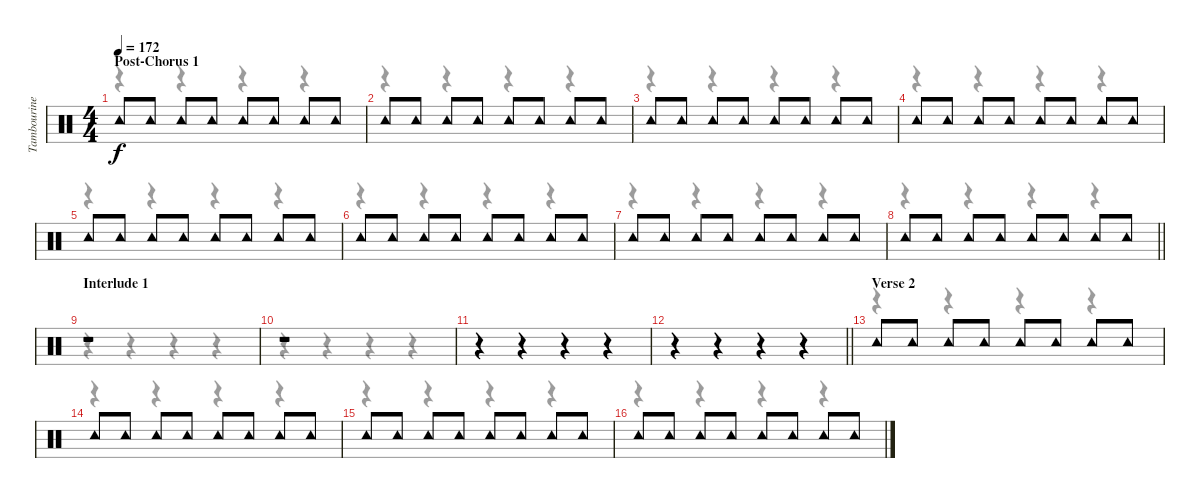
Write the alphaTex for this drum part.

\track ("Tambourine" "Tambourine") {instrument percussion}
\staff {score}
\articulation defaults
\voice
\ts (4 4)
\section ("" "Post-Chorus 1")
\tempo 172
\clef neutral
\ks c "Tambourine (hit)".8{dy f} "Tambourine (hit)".8 "Tambourine (hit)".8 "Tambourine (hit)".8 "Tambourine (hit)".8 "Tambourine (hit)".8 "Tambourine (hit)".8 "Tambourine (hit)".8
|
"Tambourine (hit)".8 "Tambourine (hit)".8 "Tambourine (hit)".8 "Tambourine (hit)".8 "Tambourine (hit)".8 "Tambourine (hit)".8 "Tambourine (hit)".8 "Tambourine (hit)".8 |
"Tambourine (hit)".8 "Tambourine (hit)".8 "Tambourine (hit)".8 "Tambourine (hit)".8 "Tambourine (hit)".8 "Tambourine (hit)".8 "Tambourine (hit)".8 "Tambourine (hit)".8 |
"Tambourine (hit)".8 "Tambourine (hit)".8 "Tambourine (hit)".8 "Tambourine (hit)".8 "Tambourine (hit)".8 "Tambourine (hit)".8 "Tambourine (hit)".8 "Tambourine (hit)".8 |
"Tambourine (hit)".8 "Tambourine (hit)".8 "Tambourine (hit)".8 "Tambourine (hit)".8 "Tambourine (hit)".8 "Tambourine (hit)".8 "Tambourine (hit)".8 "Tambourine (hit)".8 |
"Tambourine (hit)".8 "Tambourine (hit)".8 "Tambourine (hit)".8 "Tambourine (hit)".8 "Tambourine (hit)".8 "Tambourine (hit)".8 "Tambourine (hit)".8 "Tambourine (hit)".8 |
"Tambourine (hit)".8 "Tambourine (hit)".8 "Tambourine (hit)".8 "Tambourine (hit)".8 "Tambourine (hit)".8 "Tambourine (hit)".8 "Tambourine (hit)".8 "Tambourine (hit)".8 |
\barLineRight lightlight "Tambourine (hit)".8 "Tambourine (hit)".8 "Tambourine (hit)".8 "Tambourine (hit)".8 "Tambourine (hit)".8 "Tambourine (hit)".8 "Tambourine (hit)".8 "Tambourine (hit)".8
|
\section ("" "Interlude 1")
r.1 |
r.1 |
r.4 r.4 r.4 r.4 |
\barLineRight lightlight
r.4 r.4 r.4 r.4 |
\section ("" "Verse 2")
"Tambourine (hit)".8 "Tambourine (hit)".8 "Tambourine (hit)".8 "Tambourine (hit)".8 "Tambourine (hit)".8 "Tambourine (hit)".8 "Tambourine (hit)".8 "Tambourine (hit)".8 |
"Tambourine (hit)".8 "Tambourine (hit)".8 "Tambourine (hit)".8 "Tambourine (hit)".8 "Tambourine (hit)".8 "Tambourine (hit)".8 "Tambourine (hit)".8 "Tambourine (hit)".8 |
"Tambourine (hit)".8 "Tambourine (hit)".8 "Tambourine (hit)".8 "Tambourine (hit)".8 "Tambourine (hit)".8 "Tambourine (hit)".8 "Tambourine (hit)".8 "Tambourine (hit)".8 |
"Tambourine (hit)".8 "Tambourine (hit)".8 "Tambourine (hit)".8 "Tambourine (hit)".8 "Tambourine (hit)".8 "Tambourine (hit)".8 "Tambourine (hit)".8 "Tambourine (hit)".8
\voice
\clef neutral
\ottava regular
\simile none
\ks c
r.4{dy f} r.4 r.4 r.4 |
r.4 r.4 r.4 r.4 |
r.4 r.4 r.4 r.4 |
r.4 r.4 r.4 r.4 |
r.4 r.4 r.4 r.4 |
r.4 r.4 r.4 r.4 |
r.4 r.4 r.4 r.4 |
\barLineRight lightlight
r.4 r.4 r.4 r.4 |
r.4 r.4 r.4 r.4 |
r.4 r.4 r.4 r.4 |
r.4 r.4 r.4 r.4 |
\barLineRight lightlight
r.4 r.4 r.4 r.4 |
r.4 r.4 r.4 r.4 |
r.4 r.4 r.4 r.4 |
r.4 r.4 r.4 r.4 |
r.4 r.4 r.4 r.4
